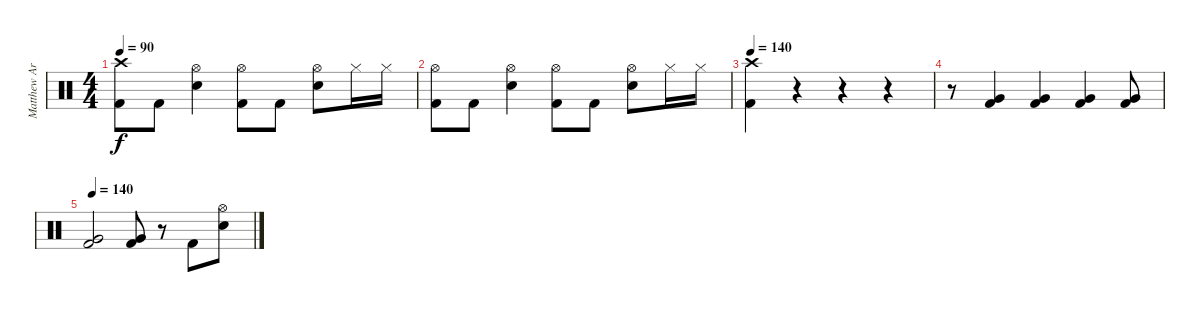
\track ("Matthew Archer" "Matthew Ar") {instrument percussion}
\staff {score}
\articulation defaults
\ts (4 4)
\tempo 90
\clef neutral
\ks c
("Crash high (hit)" "Kick (hit) 2").8{dy f} "Kick (hit) 2".8 ("Hi-Hat (open)" "Electric Snare (hit)").4 ("Hi-Hat (open)" "Kick (hit) 2").8 "Kick (hit) 2".8 ("Hi-Hat (open)" "Electric Snare (hit)").8 "Hi-Hat (closed)".16 "Hi-Hat (closed)".16 |
("Hi-Hat (open)" "Kick (hit) 2").8 "Kick (hit) 2".8 ("Hi-Hat (open)" "Electric Snare (hit)").4 ("Hi-Hat (open)" "Kick (hit) 2").8 "Kick (hit) 2".8 ("Hi-Hat (open)" "Electric Snare (hit)").8 "Hi-Hat (closed)".16 "Hi-Hat (closed)".16 |
\tempo 140
("Crash high (hit)" "Kick (hit) 2").4 r.4 r.4 r.4 |
r.8 ("Very Low Tom (hit)" "Kick (hit) 2").4 ("Very Low Tom (hit)" "Kick (hit) 2").4 ("Very Low Tom (hit)" "Kick (hit) 2").4 ("Very Low Tom (hit)" "Kick (hit) 2").8 |
\tempo 140
("Very Low Tom (hit)" "Kick (hit) 2").2 ("Very Low Tom (hit)" "Kick (hit) 2").8 r.8 "Kick (hit) 2".8 ("Hi-Hat (open)" "Electric Snare (hit)").8
